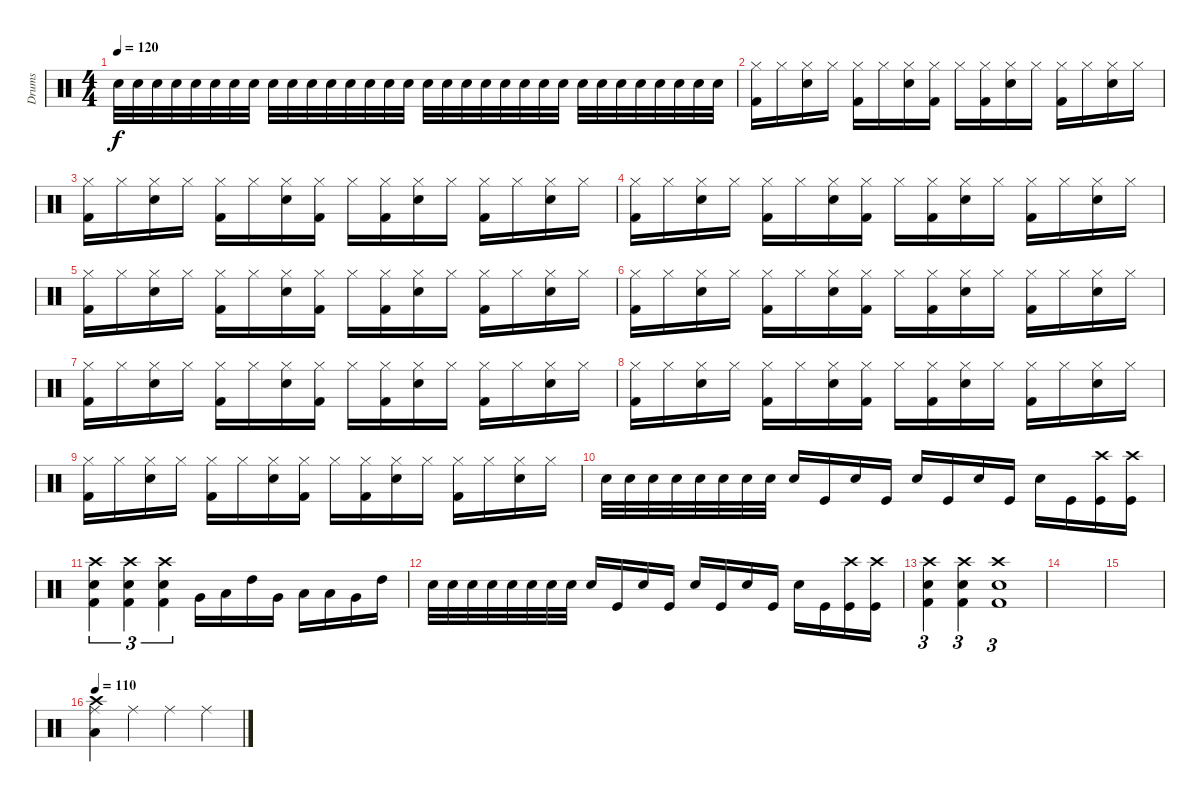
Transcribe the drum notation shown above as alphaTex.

\track ("Drums" "Drums") {instrument percussion}
\staff {score}
\articulation defaults
\ts (4 4)
\tempo 120
\clef neutral
\ks c "Snare (hit) 2".32{dy f volume 4} "Snare (hit) 2".32{volume 6} "Snare (hit) 2".32{volume 8} "Snare (hit) 2".32{volume 9} "Snare (hit) 2".32{volume 10} "Snare (hit) 2".32{volume 12} "Snare (hit) 2".32{volume 14} "Snare (hit) 2".32{volume 16} "Snare (hit) 2".32 "Snare (hit) 2".32 "Snare (hit) 2".32 "Snare (hit) 2".32 "Snare (hit) 2".32 "Snare (hit) 2".32 "Snare (hit) 2".32 "Snare (hit) 2".32 "Snare (hit) 2".32 "Snare (hit) 2".32 "Snare (hit) 2".32 "Snare (hit) 2".32 "Snare (hit) 2".32 "Snare (hit) 2".32 "Snare (hit) 2".32 "Snare (hit) 2".32 "Snare (hit) 2".32 "Snare (hit) 2".32 "Snare (hit) 2".32 "Snare (hit) 2".32 "Snare (hit) 2".32 "Snare (hit) 2".32 "Snare (hit) 2".32 "Snare (hit) 2".32
|
("Hi-Hat (closed)" "Kick (hit) 2").16 "Hi-Hat (closed)".16 ("Hi-Hat (closed)" "Electric Snare (hit)").16 "Hi-Hat (closed)".16 ("Hi-Hat (closed)" "Kick (hit) 2").16 "Hi-Hat (closed)".16 ("Hi-Hat (closed)" "Electric Snare (hit)").16 ("Hi-Hat (closed)" "Kick (hit) 2").16 "Hi-Hat (closed)".16 ("Hi-Hat (closed)" "Kick (hit) 2").16 ("Hi-Hat (closed)" "Electric Snare (hit)").16 "Hi-Hat (closed)".16 ("Hi-Hat (closed)" "Kick (hit) 2").16 "Hi-Hat (closed)".16 ("Hi-Hat (closed)" "Electric Snare (hit)").16 "Hi-Hat (closed)".16 |
("Hi-Hat (closed)" "Kick (hit) 2").16 "Hi-Hat (closed)".16 ("Hi-Hat (closed)" "Electric Snare (hit)").16 "Hi-Hat (closed)".16 ("Hi-Hat (closed)" "Kick (hit) 2").16 "Hi-Hat (closed)".16 ("Hi-Hat (closed)" "Electric Snare (hit)").16 ("Hi-Hat (closed)" "Kick (hit) 2").16 "Hi-Hat (closed)".16 ("Hi-Hat (closed)" "Kick (hit) 2").16 ("Hi-Hat (closed)" "Electric Snare (hit)").16 "Hi-Hat (closed)".16 ("Hi-Hat (closed)" "Kick (hit) 2").16 "Hi-Hat (closed)".16 ("Hi-Hat (closed)" "Electric Snare (hit)").16 "Hi-Hat (closed)".16 |
("Hi-Hat (closed)" "Kick (hit) 2").16 "Hi-Hat (closed)".16 ("Hi-Hat (closed)" "Electric Snare (hit)").16 "Hi-Hat (closed)".16 ("Hi-Hat (closed)" "Kick (hit) 2").16 "Hi-Hat (closed)".16 ("Hi-Hat (closed)" "Electric Snare (hit)").16 ("Hi-Hat (closed)" "Kick (hit) 2").16 "Hi-Hat (closed)".16 ("Hi-Hat (closed)" "Kick (hit) 2").16 ("Hi-Hat (closed)" "Electric Snare (hit)").16 "Hi-Hat (closed)".16 ("Hi-Hat (closed)" "Kick (hit) 2").16 "Hi-Hat (closed)".16 ("Hi-Hat (closed)" "Electric Snare (hit)").16 "Hi-Hat (closed)".16 |
("Hi-Hat (closed)" "Kick (hit) 2").16 "Hi-Hat (closed)".16 ("Hi-Hat (closed)" "Electric Snare (hit)").16 "Hi-Hat (closed)".16 ("Hi-Hat (closed)" "Kick (hit) 2").16 "Hi-Hat (closed)".16 ("Hi-Hat (closed)" "Electric Snare (hit)").16 ("Hi-Hat (closed)" "Kick (hit) 2").16 "Hi-Hat (closed)".16 ("Hi-Hat (closed)" "Kick (hit) 2").16 ("Hi-Hat (closed)" "Electric Snare (hit)").16 "Hi-Hat (closed)".16 ("Hi-Hat (closed)" "Kick (hit) 2").16 "Hi-Hat (closed)".16 ("Hi-Hat (closed)" "Electric Snare (hit)").16 "Hi-Hat (closed)".16 |
("Hi-Hat (closed)" "Kick (hit) 2").16 "Hi-Hat (closed)".16 ("Hi-Hat (closed)" "Electric Snare (hit)").16 "Hi-Hat (closed)".16 ("Hi-Hat (closed)" "Kick (hit) 2").16 "Hi-Hat (closed)".16 ("Hi-Hat (closed)" "Electric Snare (hit)").16 ("Hi-Hat (closed)" "Kick (hit) 2").16 "Hi-Hat (closed)".16 ("Hi-Hat (closed)" "Kick (hit) 2").16 ("Hi-Hat (closed)" "Electric Snare (hit)").16 "Hi-Hat (closed)".16 ("Hi-Hat (closed)" "Kick (hit) 2").16 "Hi-Hat (closed)".16 ("Hi-Hat (closed)" "Electric Snare (hit)").16 "Hi-Hat (closed)".16 |
("Hi-Hat (closed)" "Kick (hit) 2").16 "Hi-Hat (closed)".16 ("Hi-Hat (closed)" "Electric Snare (hit)").16 "Hi-Hat (closed)".16 ("Hi-Hat (closed)" "Kick (hit) 2").16 "Hi-Hat (closed)".16 ("Hi-Hat (closed)" "Electric Snare (hit)").16 ("Hi-Hat (closed)" "Kick (hit) 2").16 "Hi-Hat (closed)".16 ("Hi-Hat (closed)" "Kick (hit) 2").16 ("Hi-Hat (closed)" "Electric Snare (hit)").16 "Hi-Hat (closed)".16 ("Hi-Hat (closed)" "Kick (hit) 2").16 "Hi-Hat (closed)".16 ("Hi-Hat (closed)" "Electric Snare (hit)").16 "Hi-Hat (closed)".16 |
("Hi-Hat (closed)" "Kick (hit) 2").16 "Hi-Hat (closed)".16 ("Hi-Hat (closed)" "Electric Snare (hit)").16 "Hi-Hat (closed)".16 ("Hi-Hat (closed)" "Kick (hit) 2").16 "Hi-Hat (closed)".16 ("Hi-Hat (closed)" "Electric Snare (hit)").16 ("Hi-Hat (closed)" "Kick (hit) 2").16 "Hi-Hat (closed)".16 ("Hi-Hat (closed)" "Kick (hit) 2").16 ("Hi-Hat (closed)" "Electric Snare (hit)").16 "Hi-Hat (closed)".16 ("Hi-Hat (closed)" "Kick (hit) 2").16 "Hi-Hat (closed)".16 ("Hi-Hat (closed)" "Electric Snare (hit)").16 "Hi-Hat (closed)".16 |
("Hi-Hat (closed)" "Kick (hit) 2").16 "Hi-Hat (closed)".16 ("Hi-Hat (closed)" "Electric Snare (hit)").16 "Hi-Hat (closed)".16 ("Hi-Hat (closed)" "Kick (hit) 2").16 "Hi-Hat (closed)".16 ("Hi-Hat (closed)" "Electric Snare (hit)").16 ("Hi-Hat (closed)" "Kick (hit) 2").16 "Hi-Hat (closed)".16 ("Hi-Hat (closed)" "Kick (hit) 2").16 ("Hi-Hat (closed)" "Electric Snare (hit)").16 "Hi-Hat (closed)".16 ("Hi-Hat (closed)" "Kick (hit) 2").16 "Hi-Hat (closed)".16 ("Hi-Hat (closed)" "Electric Snare (hit)").16 "Hi-Hat (closed)".16 |
"Snare (hit) 2".32 "Snare (hit) 2".32 "Snare (hit) 2".32 "Snare (hit) 2".32 "Snare (hit) 2".32 "Snare (hit) 2".32 "Snare (hit) 2".32 "Snare (hit) 2".32 "Snare (hit) 2".16 "Kick (hit)".16 "Snare (hit) 2".16 "Kick (hit)".16 "Snare (hit) 2".16 "Kick (hit)".16 "Snare (hit) 2".16 "Kick (hit)".16 "Snare (hit) 2".16 "Kick (hit)".16 ("Crash high (hit)" "Kick (hit)").16 ("Crash high (hit)" "Kick (hit)").16 |
("Crash high (hit)" "Electric Snare (hit)" "Kick (hit) 2").4{tu (3 2)} ("Crash high (hit)" "Electric Snare (hit)" "Kick (hit) 2").4{tu (3 2)} ("Crash high (hit)" "Electric Snare (hit)" "Kick (hit) 2").4{tu (3 2)} "Very Low Tom (hit)".16 "Low Tom (hit)".16 "High Tom (hit)".16 "Very Low Tom (hit)".16 "Low Tom (hit)".16 "Low Floor Tom (hit)".16 "Very Low Tom (hit)".16 "High Tom (hit)".16 |
"Snare (hit) 2".32 "Snare (hit) 2".32 "Snare (hit) 2".32 "Snare (hit) 2".32 "Snare (hit) 2".32 "Snare (hit) 2".32 "Snare (hit) 2".32 "Snare (hit) 2".32 "Snare (hit) 2".16 "Kick (hit)".16 "Snare (hit) 2".16 "Kick (hit)".16 "Snare (hit) 2".16 "Kick (hit)".16 "Snare (hit) 2".16 "Kick (hit)".16 "Snare (hit) 2".16 "Kick (hit)".16 ("Crash high (hit)" "Kick (hit)").16 ("Crash high (hit)" "Kick (hit)").16 |
("Crash high (hit)" "Electric Snare (hit)" "Kick (hit) 2").4{tu (3 2)} ("Crash high (hit)" "Electric Snare (hit)" "Kick (hit) 2").4{tu (3 2)} ("Crash high (hit)" "Electric Snare (hit)" "Kick (hit) 2").1{tu (3 2)} |
|
|
\tempo 110
("Low Floor Tom (hit)" "Crash high (hit)" "Ride (middle)").4 "Ride (middle)".4 "Ride (middle)".4 "Ride (middle)".4
